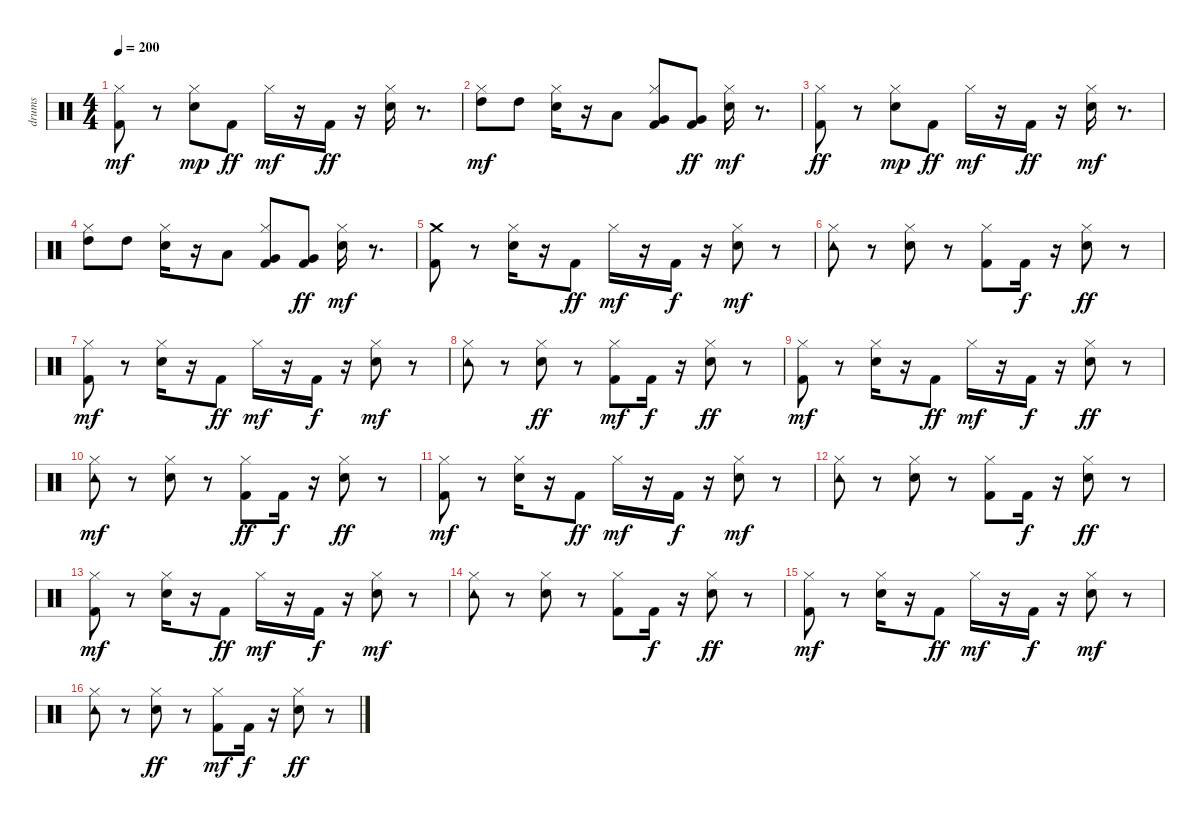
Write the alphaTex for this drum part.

\track ("drums" "drums") {instrument percussion}
\staff {score}
\articulation defaults
\ts (4 4)
\tempo 200
\clef neutral
\ks c
("Kick (hit) 2" "Hi-Hat (closed)").8{dy mf} r.8 ("Hi-Hat (closed)" "Snare (hit) 2").8{dy mp} "Kick (hit) 2".8{dy ff} "Hi-Hat (closed)".16{dy mf} r.16 "Kick (hit) 2".16{dy ff} r.16 ("Hi-Hat (closed)" "Snare (hit) 2").16 r.8{d} |
("High Tom (hit)" "Hi-Hat (closed)").8{dy mf} "High Tom (hit)".8 ("Snare (hit) 2" "Hi-Hat (closed)").16 r.16 "Low Tom (hit)".8 ("Very Low Tom (hit)" "Kick (hit) 2" "Hi-Hat (closed)").8 ("Very Low Tom (hit)" "Kick (hit) 2").8{dy ff} ("Snare (hit) 2" "Hi-Hat (closed)").16{dy mf} r.8{d} |
("Hi-Hat (closed)" "Kick (hit) 2").8{dy ff} r.8 ("Snare (hit) 2" "Hi-Hat (closed)").8{dy mp} "Kick (hit) 2".8{dy ff} "Hi-Hat (closed)".16{dy mf} r.16 "Kick (hit) 2".16{dy ff} r.16 ("Snare (hit) 2" "Hi-Hat (closed)").16{dy mf} r.8{d} |
("High Tom (hit)" "Hi-Hat (closed)").8 "High Tom (hit)".8 ("Snare (hit) 2" "Hi-Hat (closed)").16 r.16 "Low Tom (hit)".8 ("Very Low Tom (hit)" "Kick (hit) 2" "Hi-Hat (closed)").8 ("Very Low Tom (hit)" "Kick (hit) 2").8{dy ff} ("Snare (hit) 2" "Hi-Hat (closed)").16{dy mf} r.8{d} |
("Kick (hit) 2" "Crash medium (hit)").8 r.8 ("Snare (hit) 2" "Hi-Hat (closed)").16 r.16 "Kick (hit) 2".8{dy ff} "Hi-Hat (closed)".16{dy mf} r.16 "Kick (hit) 2".16{dy f} r.16 ("Snare (hit) 2" "Hi-Hat (closed)").8{dy mf} r.8 |
("Tambourine (hit)" "Hi-Hat (closed)").8 r.8 ("Snare (hit) 2" "Hi-Hat (closed)").8 r.8 ("Kick (hit) 2" "Hi-Hat (closed)").8 "Kick (hit) 2".16{dy f} r.16 ("Snare (hit) 2" "Hi-Hat (closed)").8{dy ff} r.8 |
("Kick (hit) 2" "Hi-Hat (closed)").8{dy mf} r.8 ("Snare (hit) 2" "Hi-Hat (closed)").16 r.16 "Kick (hit) 2".8{dy ff} "Hi-Hat (closed)".16{dy mf} r.16 "Kick (hit) 2".16{dy f} r.16 ("Snare (hit) 2" "Hi-Hat (closed)").8{dy mf} r.8 |
("Tambourine (hit)" "Hi-Hat (closed)").8 r.8 ("Hi-Hat (closed)" "Snare (hit) 2").8{dy ff} r.8 ("Kick (hit) 2" "Hi-Hat (closed)").8{dy mf} "Kick (hit) 2".16{dy f} r.16 ("Hi-Hat (closed)" "Snare (hit) 2").8{dy ff} r.8 |
("Kick (hit) 2" "Hi-Hat (closed)").8{dy mf} r.8 ("Snare (hit) 2" "Hi-Hat (closed)").16 r.16 "Kick (hit) 2".8{dy ff} "Hi-Hat (closed)".16{dy mf} r.16 "Kick (hit) 2".16{dy f} r.16 ("Hi-Hat (closed)" "Snare (hit) 2").8{dy ff} r.8 |
("Tambourine (hit)" "Hi-Hat (closed)").8{dy mf} r.8 ("Snare (hit) 2" "Hi-Hat (closed)").8 r.8 ("Hi-Hat (closed)" "Kick (hit) 2").8{dy ff} "Kick (hit) 2".16{dy f} r.16 ("Hi-Hat (closed)" "Snare (hit) 2").8{dy ff} r.8 |
("Kick (hit) 2" "Hi-Hat (closed)").8{dy mf} r.8 ("Hi-Hat (closed)" "Snare (hit) 2").16 r.16 "Kick (hit) 2".8{dy ff} "Hi-Hat (closed)".16{dy mf} r.16 "Kick (hit) 2".16{dy f} r.16 ("Snare (hit) 2" "Hi-Hat (closed)").8{dy mf} r.8 |
("Tambourine (hit)" "Hi-Hat (closed)").8 r.8 ("Snare (hit) 2" "Hi-Hat (closed)").8 r.8 ("Kick (hit) 2" "Hi-Hat (closed)").8 "Kick (hit) 2".16{dy f} r.16 ("Snare (hit) 2" "Hi-Hat (closed)").8{dy ff} r.8 |
("Kick (hit) 2" "Hi-Hat (closed)").8{dy mf} r.8 ("Snare (hit) 2" "Hi-Hat (closed)").16 r.16 "Kick (hit) 2".8{dy ff} "Hi-Hat (closed)".16{dy mf} r.16 "Kick (hit) 2".16{dy f} r.16 ("Snare (hit) 2" "Hi-Hat (closed)").8{dy mf} r.8 |
("Tambourine (hit)" "Hi-Hat (closed)").8 r.8 ("Snare (hit) 2" "Hi-Hat (closed)").8 r.8 ("Kick (hit) 2" "Hi-Hat (closed)").8 "Kick (hit) 2".16{dy f} r.16 ("Snare (hit) 2" "Hi-Hat (closed)").8{dy ff} r.8 |
("Kick (hit) 2" "Hi-Hat (closed)").8{dy mf} r.8 ("Snare (hit) 2" "Hi-Hat (closed)").16 r.16 "Kick (hit) 2".8{dy ff} "Hi-Hat (closed)".16{dy mf} r.16 "Kick (hit) 2".16{dy f} r.16 ("Snare (hit) 2" "Hi-Hat (closed)").8{dy mf} r.8 |
("Tambourine (hit)" "Hi-Hat (closed)").8 r.8 ("Hi-Hat (closed)" "Snare (hit) 2").8{dy ff} r.8 ("Kick (hit) 2" "Hi-Hat (closed)").8{dy mf} "Kick (hit) 2".16{dy f} r.16 ("Hi-Hat (closed)" "Snare (hit) 2").8{dy ff} r.8
